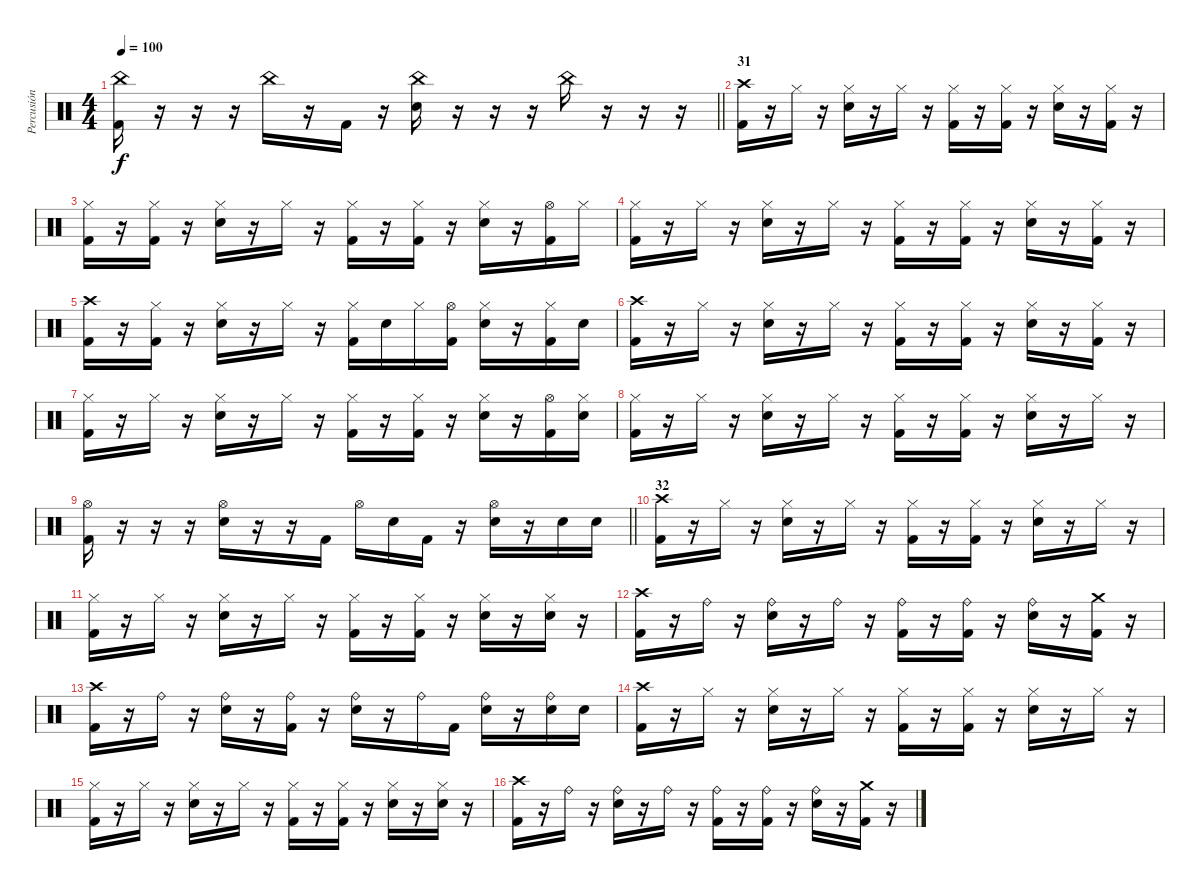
\track ("Percusión" "Percusión") {instrument percussion}
\staff {score}
\articulation defaults
\ts (4 4)
\tempo 100
\clef neutral
\barLineRight lightlight
\ks c
("China (hit)" "Kick (hit) 2").16{dy f} r.16 r.16 r.16 "China (hit)".16 r.16 "Kick (hit) 2".16 r.16 ("China (hit)" "Electric Snare (hit)").16 r.16 r.16 r.16 "China (hit)".16 r.16 r.16 r.16 |
\section ("" "31")
("Crash high (hit)" "Kick (hit) 2").16 r.16 "Hi-Hat (closed)".16 r.16 ("Hi-Hat (closed)" "Electric Snare (hit)").16 r.16 "Hi-Hat (closed)".16 r.16 ("Hi-Hat (closed)" "Kick (hit) 2").16 r.16 ("Hi-Hat (closed)" "Kick (hit) 2").16 r.16 ("Hi-Hat (closed)" "Electric Snare (hit)").16 r.16 ("Hi-Hat (closed)" "Kick (hit) 2").16 r.16 |
("Hi-Hat (closed)" "Kick (hit) 2").16 r.16 ("Hi-Hat (closed)" "Kick (hit) 2").16 r.16 ("Hi-Hat (closed)" "Electric Snare (hit)").16 r.16 "Hi-Hat (closed)".16 r.16 ("Hi-Hat (closed)" "Kick (hit) 2").16 r.16 ("Hi-Hat (closed)" "Kick (hit) 2").16 r.16 ("Hi-Hat (closed)" "Electric Snare (hit)").16 r.16 ("Hi-Hat (open)" "Kick (hit) 2").16 "Hi-Hat (closed)".16 |
("Hi-Hat (closed)" "Kick (hit) 2").16 r.16 "Hi-Hat (closed)".16 r.16 ("Hi-Hat (closed)" "Electric Snare (hit)").16 r.16 "Hi-Hat (closed)".16 r.16 ("Hi-Hat (closed)" "Kick (hit) 2").16 r.16 ("Hi-Hat (closed)" "Kick (hit) 2").16 r.16 ("Hi-Hat (closed)" "Electric Snare (hit)").16 r.16 ("Hi-Hat (closed)" "Kick (hit) 2").16 r.16 |
("Crash high (hit)" "Kick (hit) 2").16 r.16 ("Hi-Hat (closed)" "Kick (hit) 2").16 r.16 ("Hi-Hat (closed)" "Electric Snare (hit)").16 r.16 "Hi-Hat (closed)".16 r.16 ("Hi-Hat (closed)" "Kick (hit) 2").16 "Electric Snare (hit)".16 "Hi-Hat (closed)".16 ("Hi-Hat (open)" "Kick (hit) 2").16 ("Hi-Hat (closed)" "Electric Snare (hit)").16 r.16 ("Hi-Hat (closed)" "Kick (hit) 2").16 "Electric Snare (hit)".16 |
("Crash high (hit)" "Kick (hit) 2").16 r.16 "Hi-Hat (closed)".16 r.16 ("Hi-Hat (closed)" "Electric Snare (hit)").16 r.16 "Hi-Hat (closed)".16 r.16 ("Hi-Hat (closed)" "Kick (hit) 2").16 r.16 ("Hi-Hat (closed)" "Kick (hit) 2").16 r.16 ("Hi-Hat (closed)" "Electric Snare (hit)").16 r.16 ("Hi-Hat (closed)" "Kick (hit) 2").16 r.16 |
("Hi-Hat (closed)" "Kick (hit) 2").16 r.16 "Hi-Hat (closed)".16 r.16 ("Hi-Hat (closed)" "Electric Snare (hit)").16 r.16 "Hi-Hat (closed)".16 r.16 ("Hi-Hat (closed)" "Kick (hit) 2").16 r.16 ("Hi-Hat (closed)" "Kick (hit) 2").16 r.16 ("Hi-Hat (closed)" "Electric Snare (hit)").16 r.16 ("Hi-Hat (open)" "Kick (hit) 2").16 ("Hi-Hat (closed)" "Electric Snare (hit)").16 |
("Hi-Hat (closed)" "Kick (hit) 2").16 r.16 "Hi-Hat (closed)".16 r.16 ("Hi-Hat (closed)" "Electric Snare (hit)").16 r.16 "Hi-Hat (closed)".16 r.16 ("Hi-Hat (closed)" "Kick (hit) 2").16 r.16 ("Hi-Hat (closed)" "Kick (hit) 2").16 r.16 ("Hi-Hat (closed)" "Electric Snare (hit)").16 r.16 "Hi-Hat (closed)".16 r.16 |
\barLineRight lightlight
("Hi-Hat (open)" "Kick (hit) 2").16 r.16 r.16 r.16 ("Hi-Hat (open)" "Electric Snare (hit)").16 r.16 r.16 "Kick (hit) 2".16 "Hi-Hat (open)".16 "Electric Snare (hit)".16 "Kick (hit) 2".16 r.16 ("Hi-Hat (open)" "Electric Snare (hit)").16 r.16 "Electric Snare (hit)".16 "Electric Snare (hit)".16 |
\section ("" "32")
("Crash high (hit)" "Kick (hit) 2").16 r.16 "Hi-Hat (closed)".16 r.16 ("Hi-Hat (closed)" "Electric Snare (hit)").16 r.16 "Hi-Hat (closed)".16 r.16 ("Hi-Hat (closed)" "Kick (hit) 2").16 r.16 ("Hi-Hat (closed)" "Kick (hit) 2").16 r.16 ("Hi-Hat (closed)" "Electric Snare (hit)").16 r.16 "Hi-Hat (closed)".16 r.16 |
("Hi-Hat (closed)" "Kick (hit) 2").16 r.16 "Hi-Hat (closed)".16 r.16 ("Hi-Hat (closed)" "Electric Snare (hit)").16 r.16 "Hi-Hat (closed)".16 r.16 ("Hi-Hat (closed)" "Kick (hit) 2").16 r.16 ("Hi-Hat (closed)" "Kick (hit) 2").16 r.16 ("Hi-Hat (closed)" "Electric Snare (hit)").16 r.16 ("Hi-Hat (closed)" "Electric Snare (hit)").16 r.16 |
("Crash high (hit)" "Kick (hit) 2").16 r.16 "Ride (bell)".16 r.16 ("Ride (bell)" "Electric Snare (hit)").16 r.16 "Ride (bell)".16 r.16 ("Ride (bell)" "Kick (hit) 2").16 r.16 ("Ride (bell)" "Kick (hit) 2").16 r.16 ("Ride (bell)" "Electric Snare (hit)").16 r.16 ("Crash medium (hit)" "Kick (hit) 2").16 r.16 |
("Crash high (hit)" "Kick (hit) 2").16 r.16 "Ride (bell)".16 r.16 ("Ride (bell)" "Electric Snare (hit)").16 r.16 ("Ride (bell)" "Kick (hit) 2").16 r.16 ("Ride (bell)" "Electric Snare (hit)").16 r.16 "Ride (bell)".16 "Kick (hit) 2".16 ("Ride (bell)" "Electric Snare (hit)").16 r.16 ("Ride (bell)" "Electric Snare (hit)").16 "Electric Snare (hit)".16 |
("Crash high (hit)" "Kick (hit) 2").16 r.16 "Hi-Hat (closed)".16 r.16 ("Hi-Hat (closed)" "Electric Snare (hit)").16 r.16 "Hi-Hat (closed)".16 r.16 ("Hi-Hat (closed)" "Kick (hit) 2").16 r.16 ("Hi-Hat (closed)" "Kick (hit) 2").16 r.16 ("Hi-Hat (closed)" "Electric Snare (hit)").16 r.16 "Hi-Hat (closed)".16 r.16 |
("Hi-Hat (closed)" "Kick (hit) 2").16 r.16 "Hi-Hat (closed)".16 r.16 ("Hi-Hat (closed)" "Electric Snare (hit)").16 r.16 "Hi-Hat (closed)".16 r.16 ("Hi-Hat (closed)" "Kick (hit) 2").16 r.16 ("Hi-Hat (closed)" "Kick (hit) 2").16 r.16 ("Hi-Hat (closed)" "Electric Snare (hit)").16 r.16 ("Hi-Hat (closed)" "Electric Snare (hit)").16 r.16 |
("Crash high (hit)" "Kick (hit) 2").16 r.16 "Ride (bell)".16 r.16 ("Ride (bell)" "Electric Snare (hit)").16 r.16 "Ride (bell)".16 r.16 ("Ride (bell)" "Kick (hit) 2").16 r.16 ("Ride (bell)" "Kick (hit) 2").16 r.16 ("Ride (bell)" "Electric Snare (hit)").16 r.16 ("Crash medium (hit)" "Kick (hit) 2").16 r.16
